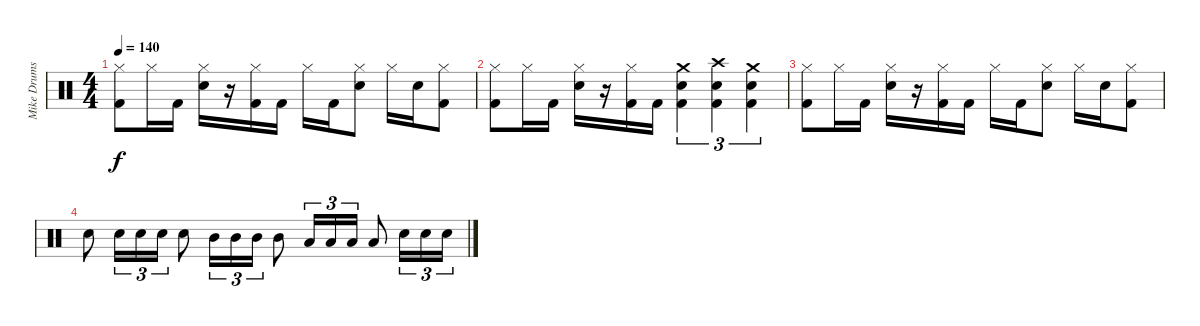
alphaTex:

\track ("Mike Drums" "Mike Drums") {instrument percussion}
\staff {score}
\articulation defaults
\ts (4 4)
\tempo 140
\clef neutral
\ks c
("Hi-Hat (closed)" "Kick (hit) 2").8{dy f} "Hi-Hat (closed)".16 "Kick (hit) 2".16 ("Hi-Hat (closed)" "Electric Snare (hit)").16 r.16 ("Hi-Hat (closed)" "Kick (hit) 2").16 "Kick (hit) 2".16 "Hi-Hat (closed)".16 "Kick (hit) 2".16 ("Hi-Hat (closed)" "Electric Snare (hit)").8 "Hi-Hat (closed)".16 "Electric Snare (hit)".16 ("Hi-Hat (closed)" "Kick (hit) 2").8 |
("Hi-Hat (closed)" "Kick (hit) 2").8 "Hi-Hat (closed)".16 "Kick (hit) 2".16 ("Hi-Hat (closed)" "Electric Snare (hit)").16 r.16 ("Hi-Hat (closed)" "Kick (hit) 2").16 "Kick (hit) 2".16 ("Crash medium (hit)" "Electric Snare (hit)" "Kick (hit) 2").4{tu (3 2)} ("Crash high (hit)" "Electric Snare (hit)" "Kick (hit) 2").4{tu (3 2)} ("Crash medium (hit)" "Electric Snare (hit)" "Kick (hit) 2").4{tu (3 2)} |
("Hi-Hat (closed)" "Kick (hit) 2").8 "Hi-Hat (closed)".16 "Kick (hit) 2".16 ("Hi-Hat (closed)" "Electric Snare (hit)").16 r.16 ("Hi-Hat (closed)" "Kick (hit) 2").16 "Kick (hit) 2".16 "Hi-Hat (closed)".16 "Kick (hit) 2".16 ("Hi-Hat (closed)" "Electric Snare (hit)").8 "Hi-Hat (closed)".16 "Electric Snare (hit)".16 ("Hi-Hat (closed)" "Kick (hit) 2").8 |
"Electric Snare (hit)".8 "Electric Snare (hit)".16{tu (3 2)} "Electric Snare (hit)".16{tu (3 2)} "Electric Snare (hit)".16{tu (3 2)} "Electric Snare (hit)".8 "Mid Tom (hit)".16{tu (3 2)} "Mid Tom (hit)".16{tu (3 2)} "Mid Tom (hit)".16{tu (3 2)} "Mid Tom (hit)".8 "Low Tom (hit)".16{tu (3 2)} "Low Tom (hit)".16{tu (3 2)} "Low Tom (hit)".16{tu (3 2)} "Low Tom (hit)".8 "Electric Snare (hit)".16{tu (3 2)} "Electric Snare (hit)".16{tu (3 2)} "Electric Snare (hit)".16{tu (3 2)}
